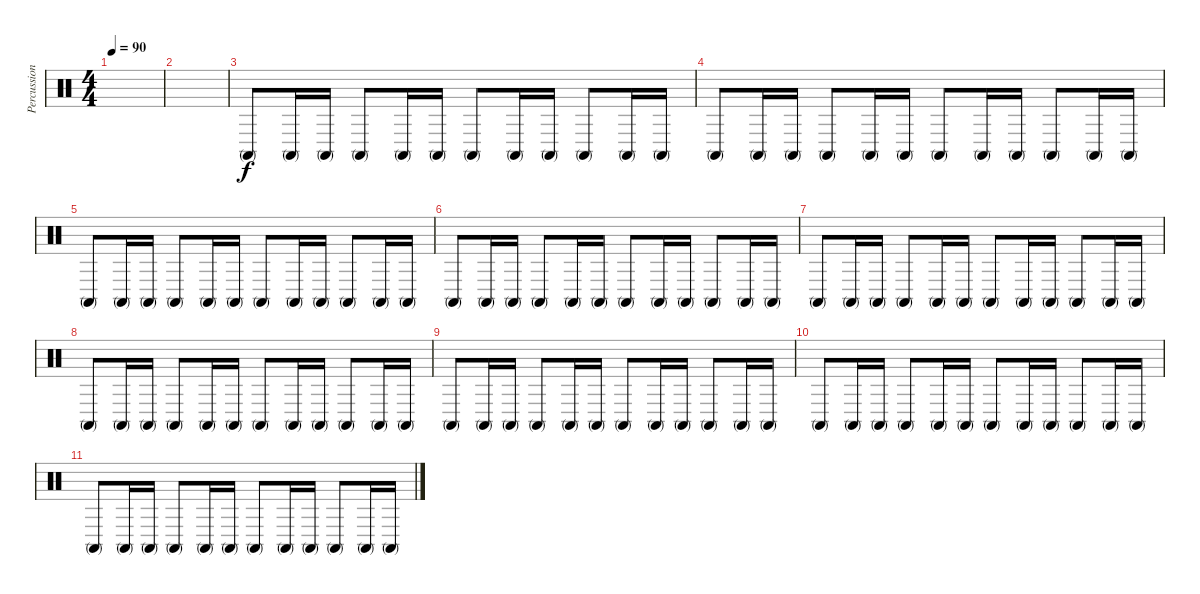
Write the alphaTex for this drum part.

\track ("Percussioni" "Percussion") {instrument percussion}
\staff {score}
\articulation defaults
\ts (4 4)
\tempo 90
\clef neutral
\ks c
|
|
"Conga high (mute)".8{dy f volume 6} "Conga high (mute)".16 "Conga high (mute)".16 "Conga high (mute)".8 "Conga high (mute)".16 "Conga high (mute)".16 "Conga high (mute)".8 "Conga high (mute)".16 "Conga high (mute)".16 "Conga high (mute)".8 "Conga high (mute)".16 "Conga high (mute)".16 |
"Conga high (mute)".8 "Conga high (mute)".16 "Conga high (mute)".16 "Conga high (mute)".8 "Conga high (mute)".16 "Conga high (mute)".16 "Conga high (mute)".8 "Conga high (mute)".16 "Conga high (mute)".16 "Conga high (mute)".8 "Conga high (mute)".16 "Conga high (mute)".16 |
"Conga high (mute)".8 "Conga high (mute)".16 "Conga high (mute)".16 "Conga high (mute)".8 "Conga high (mute)".16 "Conga high (mute)".16 "Conga high (mute)".8 "Conga high (mute)".16 "Conga high (mute)".16 "Conga high (mute)".8 "Conga high (mute)".16 "Conga high (mute)".16 |
"Conga high (mute)".8 "Conga high (mute)".16 "Conga high (mute)".16 "Conga high (mute)".8 "Conga high (mute)".16 "Conga high (mute)".16 "Conga high (mute)".8 "Conga high (mute)".16 "Conga high (mute)".16 "Conga high (mute)".8 "Conga high (mute)".16 "Conga high (mute)".16 |
"Conga high (mute)".8 "Conga high (mute)".16 "Conga high (mute)".16 "Conga high (mute)".8 "Conga high (mute)".16 "Conga high (mute)".16 "Conga high (mute)".8 "Conga high (mute)".16 "Conga high (mute)".16 "Conga high (mute)".8 "Conga high (mute)".16 "Conga high (mute)".16 |
"Conga high (mute)".8 "Conga high (mute)".16 "Conga high (mute)".16 "Conga high (mute)".8 "Conga high (mute)".16 "Conga high (mute)".16 "Conga high (mute)".8 "Conga high (mute)".16 "Conga high (mute)".16 "Conga high (mute)".8 "Conga high (mute)".16 "Conga high (mute)".16 |
"Conga high (mute)".8 "Conga high (mute)".16 "Conga high (mute)".16 "Conga high (mute)".8 "Conga high (mute)".16 "Conga high (mute)".16 "Conga high (mute)".8 "Conga high (mute)".16 "Conga high (mute)".16 "Conga high (mute)".8 "Conga high (mute)".16 "Conga high (mute)".16 |
"Conga high (mute)".8 "Conga high (mute)".16 "Conga high (mute)".16 "Conga high (mute)".8 "Conga high (mute)".16 "Conga high (mute)".16 "Conga high (mute)".8 "Conga high (mute)".16 "Conga high (mute)".16 "Conga high (mute)".8 "Conga high (mute)".16 "Conga high (mute)".16 |
"Conga high (mute)".8 "Conga high (mute)".16 "Conga high (mute)".16 "Conga high (mute)".8 "Conga high (mute)".16 "Conga high (mute)".16 "Conga high (mute)".8 "Conga high (mute)".16 "Conga high (mute)".16 "Conga high (mute)".8 "Conga high (mute)".16 "Conga high (mute)".16
